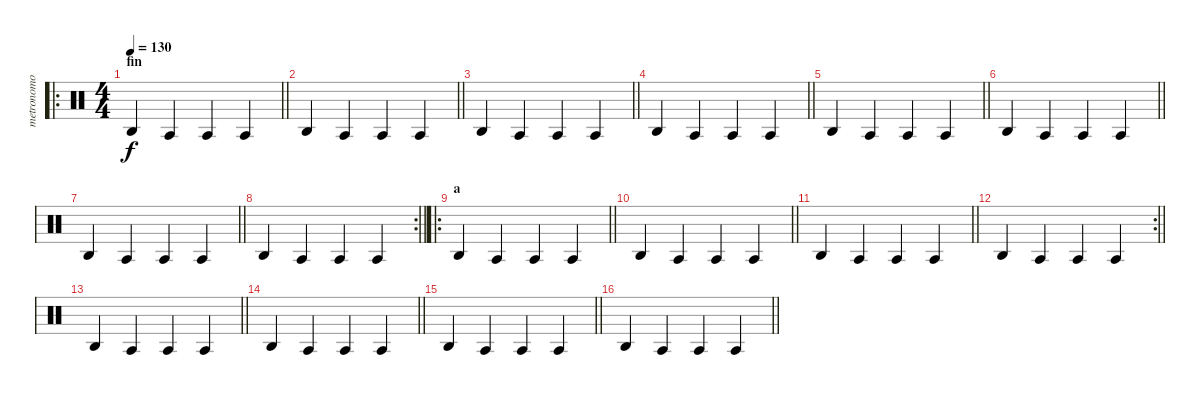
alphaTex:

\track ("metronomo" "metronomo") {mute instrument percussion}
\staff {score}
\articulation defaults
\ro
\ts (4 4)
\section ("" "fin")
\tempo 130
\clef neutral
\barLineRight lightlight
\ks c "Agogo high (hit)".4{dy f} "Agogo tow (hit)".4 "Agogo tow (hit)".4 "Agogo tow (hit)".4
|
\barLineRight lightlight "Agogo high (hit)".4 "Agogo tow (hit)".4 "Agogo tow (hit)".4 "Agogo tow (hit)".4
|
\barLineRight lightlight "Agogo high (hit)".4 "Agogo tow (hit)".4 "Agogo tow (hit)".4 "Agogo tow (hit)".4
|
\barLineRight lightlight "Agogo high (hit)".4 "Agogo tow (hit)".4 "Agogo tow (hit)".4 "Agogo tow (hit)".4
|
\barLineRight lightlight "Agogo high (hit)".4 "Agogo tow (hit)".4 "Agogo tow (hit)".4 "Agogo tow (hit)".4
|
\barLineRight lightlight "Agogo high (hit)".4 "Agogo tow (hit)".4 "Agogo tow (hit)".4 "Agogo tow (hit)".4
|
\barLineRight lightlight "Agogo high (hit)".4 "Agogo tow (hit)".4 "Agogo tow (hit)".4 "Agogo tow (hit)".4
|
\rc 2
\barLineRight lightlight "Agogo high (hit)".4 "Agogo tow (hit)".4 "Agogo tow (hit)".4 "Agogo tow (hit)".4
|
\ro
\section ("" "a")
\barLineRight lightlight "Agogo high (hit)".4 "Agogo tow (hit)".4 "Agogo tow (hit)".4 "Agogo tow (hit)".4
|
\barLineRight lightlight "Agogo high (hit)".4 "Agogo tow (hit)".4 "Agogo tow (hit)".4 "Agogo tow (hit)".4
|
\barLineRight lightlight "Agogo high (hit)".4 "Agogo tow (hit)".4 "Agogo tow (hit)".4 "Agogo tow (hit)".4
|
\rc 2
\barLineRight lightlight "Agogo high (hit)".4 "Agogo tow (hit)".4 "Agogo tow (hit)".4 "Agogo tow (hit)".4
|
\barLineRight lightlight "Agogo high (hit)".4 "Agogo tow (hit)".4 "Agogo tow (hit)".4 "Agogo tow (hit)".4
|
\barLineRight lightlight "Agogo high (hit)".4 "Agogo tow (hit)".4 "Agogo tow (hit)".4 "Agogo tow (hit)".4
|
\barLineRight lightlight "Agogo high (hit)".4 "Agogo tow (hit)".4 "Agogo tow (hit)".4 "Agogo tow (hit)".4
|
\barLineRight lightlight "Agogo high (hit)".4 "Agogo tow (hit)".4 "Agogo tow (hit)".4 "Agogo tow (hit)".4
